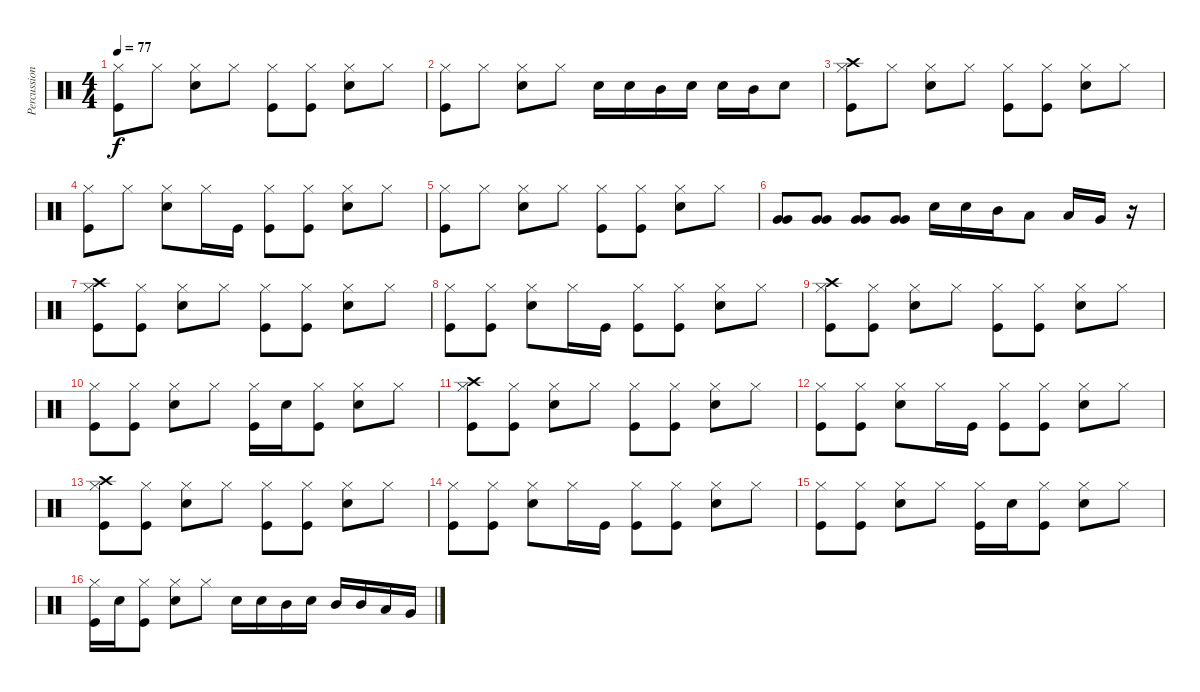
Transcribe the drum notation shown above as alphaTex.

\track ("Percussion" "Percussion") {instrument percussion}
\staff {score}
\articulation defaults
\ts (4 4)
\tempo 77
\clef neutral
\ks c
("Hi-Hat (closed)" "Kick (hit)").8{dy f} "Hi-Hat (closed)".8 ("Hi-Hat (closed)" "Electric Snare (hit)").8 "Hi-Hat (closed)".8 ("Hi-Hat (closed)" "Kick (hit)").8 ("Hi-Hat (closed)" "Kick (hit)").8 ("Hi-Hat (closed)" "Electric Snare (hit)").8 "Hi-Hat (closed)".8 |
("Hi-Hat (closed)" "Kick (hit)").8 "Hi-Hat (closed)".8 ("Hi-Hat (closed)" "Electric Snare (hit)").8 "Hi-Hat (closed)".8 "Electric Snare (hit)".16 "Electric Snare (hit)".16 "Mid Tom (hit)".16 "Electric Snare (hit)".16 "Electric Snare (hit)".16 "Mid Tom (hit)".16 "Electric Snare (hit)".8 |
("Crash high (hit)" "Hi-Hat (closed)" "Kick (hit)").8 "Hi-Hat (closed)".8 ("Hi-Hat (closed)" "Electric Snare (hit)").8 "Hi-Hat (closed)".8 ("Hi-Hat (closed)" "Kick (hit)").8 ("Hi-Hat (closed)" "Kick (hit)").8 ("Hi-Hat (closed)" "Electric Snare (hit)").8 "Hi-Hat (closed)".8 |
("Hi-Hat (closed)" "Kick (hit)").8 "Hi-Hat (closed)".8 ("Hi-Hat (closed)" "Electric Snare (hit)").8 "Hi-Hat (closed)".16 "Kick (hit)".16 ("Hi-Hat (closed)" "Kick (hit)").8 ("Hi-Hat (closed)" "Kick (hit)").8 ("Hi-Hat (closed)" "Electric Snare (hit)").8 "Hi-Hat (closed)".8 |
("Hi-Hat (closed)" "Kick (hit)").8 "Hi-Hat (closed)".8 ("Hi-Hat (closed)" "Electric Snare (hit)").8 "Hi-Hat (closed)".8 ("Hi-Hat (closed)" "Kick (hit)").8 ("Hi-Hat (closed)" "Kick (hit)").8 ("Hi-Hat (closed)" "Electric Snare (hit)").8 "Hi-Hat (closed)".8 |
("Very Low Tom (hit)" "Very Low Tom (hit)").8 ("Very Low Tom (hit)" "Very Low Tom (hit)").8 ("Very Low Tom (hit)" "Very Low Tom (hit)").8 ("Very Low Tom (hit)" "Very Low Tom (hit)").8 "Electric Snare (hit)".16 "Electric Snare (hit)".16 "Mid Tom (hit)".16 "Low Tom (hit)".8 "Low Tom (hit)".16 "Very Low Tom (hit)".16 r.16 |
("Crash high (hit)" "Hi-Hat (closed)" "Kick (hit)").8 ("Hi-Hat (closed)" "Kick (hit)").8 ("Hi-Hat (closed)" "Electric Snare (hit)").8 "Hi-Hat (closed)".8 ("Hi-Hat (closed)" "Kick (hit)").8 ("Hi-Hat (closed)" "Kick (hit)").8 ("Hi-Hat (closed)" "Electric Snare (hit)").8 "Hi-Hat (closed)".8 |
("Hi-Hat (closed)" "Kick (hit)").8 ("Hi-Hat (closed)" "Kick (hit)").8 ("Hi-Hat (closed)" "Electric Snare (hit)").8 "Hi-Hat (closed)".16 "Kick (hit)".16 ("Hi-Hat (closed)" "Kick (hit)").8 ("Hi-Hat (closed)" "Kick (hit)").8 ("Hi-Hat (closed)" "Electric Snare (hit)").8 "Hi-Hat (closed)".8 |
("Crash high (hit)" "Hi-Hat (closed)" "Kick (hit)").8 ("Hi-Hat (closed)" "Kick (hit)").8 ("Hi-Hat (closed)" "Electric Snare (hit)").8 "Hi-Hat (closed)".8 ("Hi-Hat (closed)" "Kick (hit)").8 ("Hi-Hat (closed)" "Kick (hit)").8 ("Hi-Hat (closed)" "Electric Snare (hit)").8 "Hi-Hat (closed)".8 |
("Hi-Hat (closed)" "Kick (hit)").8 ("Hi-Hat (closed)" "Kick (hit)").8 ("Hi-Hat (closed)" "Electric Snare (hit)").8 "Hi-Hat (closed)".8 ("Hi-Hat (closed)" "Kick (hit)").16 "Electric Snare (hit)".16 ("Hi-Hat (closed)" "Kick (hit)").8 ("Hi-Hat (closed)" "Electric Snare (hit)").8 "Hi-Hat (closed)".8 |
("Crash high (hit)" "Hi-Hat (closed)" "Kick (hit)").8 ("Hi-Hat (closed)" "Kick (hit)").8 ("Hi-Hat (closed)" "Electric Snare (hit)").8 "Hi-Hat (closed)".8 ("Hi-Hat (closed)" "Kick (hit)").8 ("Hi-Hat (closed)" "Kick (hit)").8 ("Hi-Hat (closed)" "Electric Snare (hit)").8 "Hi-Hat (closed)".8 |
("Hi-Hat (closed)" "Kick (hit)").8 ("Hi-Hat (closed)" "Kick (hit)").8 ("Hi-Hat (closed)" "Electric Snare (hit)").8 "Hi-Hat (closed)".16 "Kick (hit)".16 ("Hi-Hat (closed)" "Kick (hit)").8 ("Hi-Hat (closed)" "Kick (hit)").8 ("Hi-Hat (closed)" "Electric Snare (hit)").8 "Hi-Hat (closed)".8 |
("Crash high (hit)" "Hi-Hat (closed)" "Kick (hit)").8 ("Hi-Hat (closed)" "Kick (hit)").8 ("Hi-Hat (closed)" "Electric Snare (hit)").8 "Hi-Hat (closed)".8 ("Hi-Hat (closed)" "Kick (hit)").8 ("Hi-Hat (closed)" "Kick (hit)").8 ("Hi-Hat (closed)" "Electric Snare (hit)").8 "Hi-Hat (closed)".8 |
("Hi-Hat (closed)" "Kick (hit)").8 ("Hi-Hat (closed)" "Kick (hit)").8 ("Hi-Hat (closed)" "Electric Snare (hit)").8 "Hi-Hat (closed)".16 "Kick (hit)".16 ("Hi-Hat (closed)" "Kick (hit)").8 ("Hi-Hat (closed)" "Kick (hit)").8 ("Hi-Hat (closed)" "Electric Snare (hit)").8 "Hi-Hat (closed)".8 |
("Hi-Hat (closed)" "Kick (hit)").8 ("Hi-Hat (closed)" "Kick (hit)").8 ("Hi-Hat (closed)" "Electric Snare (hit)").8 "Hi-Hat (closed)".8 ("Hi-Hat (closed)" "Kick (hit)").16 "Electric Snare (hit)".16 ("Hi-Hat (closed)" "Kick (hit)").8 ("Hi-Hat (closed)" "Electric Snare (hit)").8 "Hi-Hat (closed)".8 |
("Hi-Hat (closed)" "Kick (hit)").16 "Electric Snare (hit)".16 ("Hi-Hat (closed)" "Kick (hit)").8 ("Hi-Hat (closed)" "Electric Snare (hit)").8 "Hi-Hat (closed)".8 "Electric Snare (hit)".16 "Electric Snare (hit)".16 "Mid Tom (hit)".16 "Electric Snare (hit)".16 "Mid Tom (hit)".16 "Mid Tom (hit)".16 "Low Tom (hit)".16 "Very Low Tom (hit)".16
